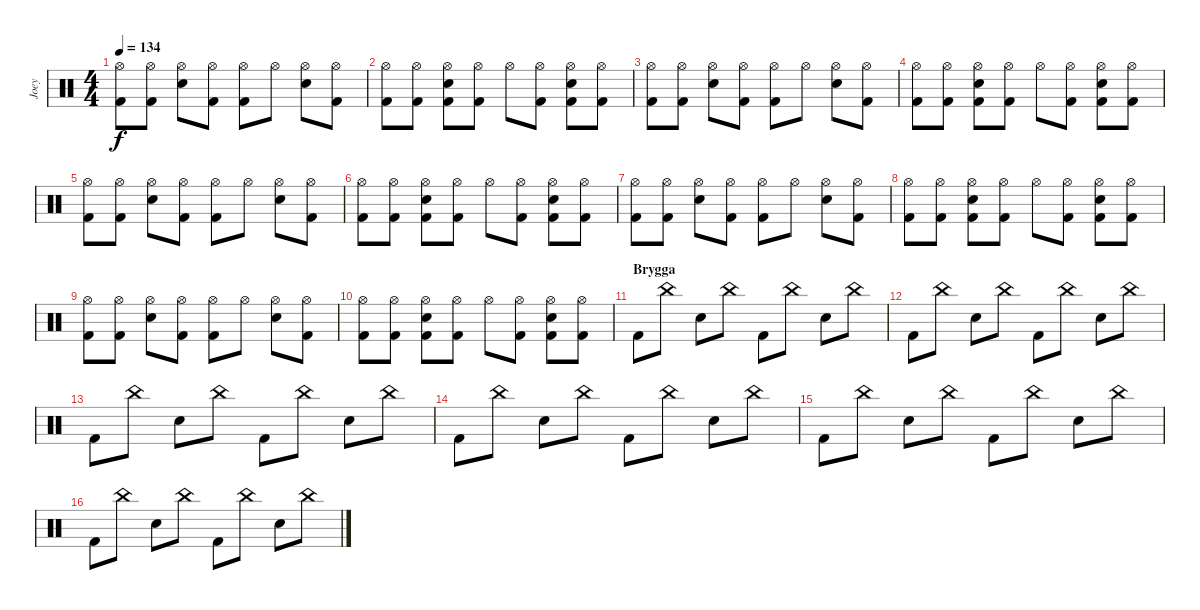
\track ("Joey" "Joey") {instrument percussion}
\staff {score}
\articulation defaults
\ts (4 4)
\tempo 134
\clef neutral
\ks c
("Hi-Hat (open)" "Kick (hit) 2").8{dy f} ("Hi-Hat (open)" "Kick (hit) 2").8 ("Hi-Hat (open)" "Electric Snare (hit)").8 ("Hi-Hat (open)" "Kick (hit) 2").8 ("Hi-Hat (open)" "Kick (hit) 2").8 "Hi-Hat (open)".8 ("Hi-Hat (open)" "Electric Snare (hit)").8 ("Hi-Hat (open)" "Kick (hit) 2").8 |
("Hi-Hat (open)" "Kick (hit) 2").8 ("Hi-Hat (open)" "Kick (hit) 2").8 ("Hi-Hat (open)" "Electric Snare (hit)" "Kick (hit) 2").8 ("Hi-Hat (open)" "Kick (hit) 2").8 "Hi-Hat (open)".8 ("Hi-Hat (open)" "Kick (hit) 2").8 ("Hi-Hat (open)" "Electric Snare (hit)" "Kick (hit) 2").8 ("Hi-Hat (open)" "Kick (hit) 2").8 |
("Hi-Hat (open)" "Kick (hit) 2").8 ("Hi-Hat (open)" "Kick (hit) 2").8 ("Hi-Hat (open)" "Electric Snare (hit)").8 ("Hi-Hat (open)" "Kick (hit) 2").8 ("Hi-Hat (open)" "Kick (hit) 2").8 "Hi-Hat (open)".8 ("Hi-Hat (open)" "Electric Snare (hit)").8 ("Hi-Hat (open)" "Kick (hit) 2").8 |
("Hi-Hat (open)" "Kick (hit) 2").8 ("Hi-Hat (open)" "Kick (hit) 2").8 ("Hi-Hat (open)" "Electric Snare (hit)" "Kick (hit) 2").8 ("Hi-Hat (open)" "Kick (hit) 2").8 "Hi-Hat (open)".8 ("Hi-Hat (open)" "Kick (hit) 2").8 ("Hi-Hat (open)" "Electric Snare (hit)" "Kick (hit) 2").8 ("Hi-Hat (open)" "Kick (hit) 2").8 |
("Hi-Hat (open)" "Kick (hit) 2").8 ("Hi-Hat (open)" "Kick (hit) 2").8 ("Hi-Hat (open)" "Electric Snare (hit)").8 ("Hi-Hat (open)" "Kick (hit) 2").8 ("Hi-Hat (open)" "Kick (hit) 2").8 "Hi-Hat (open)".8 ("Hi-Hat (open)" "Electric Snare (hit)").8 ("Hi-Hat (open)" "Kick (hit) 2").8 |
("Hi-Hat (open)" "Kick (hit) 2").8 ("Hi-Hat (open)" "Kick (hit) 2").8 ("Hi-Hat (open)" "Electric Snare (hit)" "Kick (hit) 2").8 ("Hi-Hat (open)" "Kick (hit) 2").8 "Hi-Hat (open)".8 ("Hi-Hat (open)" "Kick (hit) 2").8 ("Hi-Hat (open)" "Electric Snare (hit)" "Kick (hit) 2").8 ("Hi-Hat (open)" "Kick (hit) 2").8 |
("Hi-Hat (open)" "Kick (hit) 2").8 ("Hi-Hat (open)" "Kick (hit) 2").8 ("Hi-Hat (open)" "Electric Snare (hit)").8 ("Hi-Hat (open)" "Kick (hit) 2").8 ("Hi-Hat (open)" "Kick (hit) 2").8 "Hi-Hat (open)".8 ("Hi-Hat (open)" "Electric Snare (hit)").8 ("Hi-Hat (open)" "Kick (hit) 2").8 |
("Hi-Hat (open)" "Kick (hit) 2").8 ("Hi-Hat (open)" "Kick (hit) 2").8 ("Hi-Hat (open)" "Electric Snare (hit)" "Kick (hit) 2").8 ("Hi-Hat (open)" "Kick (hit) 2").8 "Hi-Hat (open)".8 ("Hi-Hat (open)" "Kick (hit) 2").8 ("Hi-Hat (open)" "Electric Snare (hit)" "Kick (hit) 2").8 ("Hi-Hat (open)" "Kick (hit) 2").8 |
("Hi-Hat (open)" "Kick (hit) 2").8 ("Hi-Hat (open)" "Kick (hit) 2").8 ("Hi-Hat (open)" "Electric Snare (hit)").8 ("Hi-Hat (open)" "Kick (hit) 2").8 ("Hi-Hat (open)" "Kick (hit) 2").8 "Hi-Hat (open)".8 ("Hi-Hat (open)" "Electric Snare (hit)").8 ("Hi-Hat (open)" "Kick (hit) 2").8 |
("Hi-Hat (open)" "Kick (hit) 2").8 ("Hi-Hat (open)" "Kick (hit) 2").8 ("Hi-Hat (open)" "Electric Snare (hit)" "Kick (hit) 2").8 ("Hi-Hat (open)" "Kick (hit) 2").8 "Hi-Hat (open)".8 ("Hi-Hat (open)" "Kick (hit) 2").8 ("Hi-Hat (open)" "Electric Snare (hit)" "Kick (hit) 2").8 ("Hi-Hat (open)" "Kick (hit) 2").8 |
\section ("" "Brygga")
"Kick (hit) 2".8 "China (hit)".8 "Electric Snare (hit)".8 "China (hit)".8 "Kick (hit) 2".8 "China (hit)".8 "Electric Snare (hit)".8 "China (hit)".8 |
"Kick (hit) 2".8 "China (hit)".8 "Electric Snare (hit)".8 "China (hit)".8 "Kick (hit) 2".8 "China (hit)".8 "Electric Snare (hit)".8 "China (hit)".8 |
"Kick (hit) 2".8 "China (hit)".8 "Electric Snare (hit)".8 "China (hit)".8 "Kick (hit) 2".8 "China (hit)".8 "Electric Snare (hit)".8 "China (hit)".8 |
"Kick (hit) 2".8 "China (hit)".8 "Electric Snare (hit)".8 "China (hit)".8 "Kick (hit) 2".8 "China (hit)".8 "Electric Snare (hit)".8 "China (hit)".8 |
"Kick (hit) 2".8 "China (hit)".8 "Electric Snare (hit)".8 "China (hit)".8 "Kick (hit) 2".8 "China (hit)".8 "Electric Snare (hit)".8 "China (hit)".8 |
"Kick (hit) 2".8 "China (hit)".8 "Electric Snare (hit)".8 "China (hit)".8 "Kick (hit) 2".8 "China (hit)".8 "Electric Snare (hit)".8 "China (hit)".8
